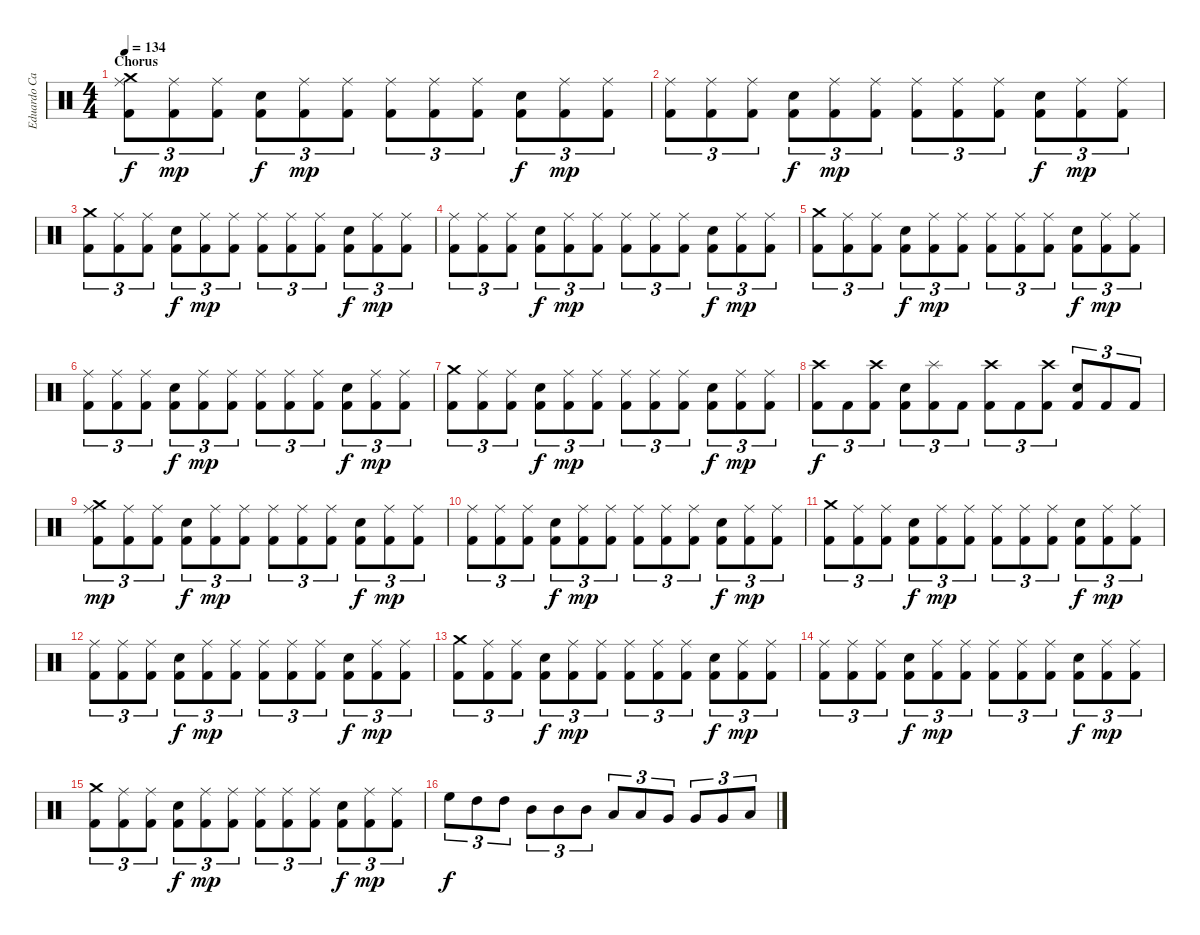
\track ("Eduardo Carrillo" "Eduardo Ca") {instrument percussion}
\staff {score}
\articulation defaults
\ts (4 4)
\section ("" "Chorus")
\tempo 134
\clef neutral
\ks c
("Kick (hit) 2" "Ride (middle)" "Crash medium (hit)").8{tu (3 2) dy f} ("Kick (hit) 2" "Ride (middle)").8{tu (3 2) dy mp} ("Kick (hit) 2" "Ride (middle)").8{tu (3 2)} ("Kick (hit) 2" "Snare (hit) 2").8{tu (3 2) dy f} ("Kick (hit) 2" "Ride (middle)").8{tu (3 2) dy mp} ("Kick (hit) 2" "Ride (middle)").8{tu (3 2)} ("Kick (hit) 2" "Ride (middle)").8{tu (3 2)} ("Kick (hit) 2" "Ride (middle)").8{tu (3 2)} ("Kick (hit) 2" "Ride (middle)").8{tu (3 2)} ("Kick (hit) 2" "Snare (hit) 2").8{tu (3 2) dy f} ("Kick (hit) 2" "Ride (middle)").8{tu (3 2) dy mp} ("Kick (hit) 2" "Ride (middle)").8{tu (3 2)} |
("Kick (hit) 2" "Ride (middle)").8{tu (3 2)} ("Kick (hit) 2" "Ride (middle)").8{tu (3 2)} ("Kick (hit) 2" "Ride (middle)").8{tu (3 2)} ("Kick (hit) 2" "Snare (hit) 2").8{tu (3 2) dy f} ("Kick (hit) 2" "Ride (middle)").8{tu (3 2) dy mp} ("Kick (hit) 2" "Ride (middle)").8{tu (3 2)} ("Kick (hit) 2" "Ride (middle)").8{tu (3 2)} ("Kick (hit) 2" "Ride (middle)").8{tu (3 2)} ("Kick (hit) 2" "Ride (middle)").8{tu (3 2)} ("Kick (hit) 2" "Snare (hit) 2").8{tu (3 2) dy f} ("Kick (hit) 2" "Ride (middle)").8{tu (3 2) dy mp} ("Kick (hit) 2" "Ride (middle)").8{tu (3 2)} |
("Kick (hit) 2" "Crash medium (hit)").8{tu (3 2)} ("Kick (hit) 2" "Ride (middle)").8{tu (3 2)} ("Kick (hit) 2" "Ride (middle)").8{tu (3 2)} ("Kick (hit) 2" "Snare (hit) 2").8{tu (3 2) dy f} ("Kick (hit) 2" "Ride (middle)").8{tu (3 2) dy mp} ("Kick (hit) 2" "Ride (middle)").8{tu (3 2)} ("Kick (hit) 2" "Ride (middle)").8{tu (3 2)} ("Kick (hit) 2" "Ride (middle)").8{tu (3 2)} ("Kick (hit) 2" "Ride (middle)").8{tu (3 2)} ("Kick (hit) 2" "Snare (hit) 2").8{tu (3 2) dy f} ("Kick (hit) 2" "Ride (middle)").8{tu (3 2) dy mp} ("Kick (hit) 2" "Ride (middle)").8{tu (3 2)} |
("Kick (hit) 2" "Ride (middle)").8{tu (3 2)} ("Kick (hit) 2" "Ride (middle)").8{tu (3 2)} ("Kick (hit) 2" "Ride (middle)").8{tu (3 2)} ("Kick (hit) 2" "Snare (hit) 2").8{tu (3 2) dy f} ("Kick (hit) 2" "Ride (middle)").8{tu (3 2) dy mp} ("Kick (hit) 2" "Ride (middle)").8{tu (3 2)} ("Kick (hit) 2" "Ride (middle)").8{tu (3 2)} ("Kick (hit) 2" "Ride (middle)").8{tu (3 2)} ("Kick (hit) 2" "Ride (middle)").8{tu (3 2)} ("Kick (hit) 2" "Snare (hit) 2").8{tu (3 2) dy f} ("Kick (hit) 2" "Ride (middle)").8{tu (3 2) dy mp} ("Kick (hit) 2" "Ride (middle)").8{tu (3 2)} |
("Kick (hit) 2" "Crash medium (hit)").8{tu (3 2)} ("Kick (hit) 2" "Ride (middle)").8{tu (3 2)} ("Kick (hit) 2" "Ride (middle)").8{tu (3 2)} ("Kick (hit) 2" "Snare (hit) 2").8{tu (3 2) dy f} ("Kick (hit) 2" "Ride (middle)").8{tu (3 2) dy mp} ("Kick (hit) 2" "Ride (middle)").8{tu (3 2)} ("Kick (hit) 2" "Ride (middle)").8{tu (3 2)} ("Kick (hit) 2" "Ride (middle)").8{tu (3 2)} ("Kick (hit) 2" "Ride (middle)").8{tu (3 2)} ("Kick (hit) 2" "Snare (hit) 2").8{tu (3 2) dy f} ("Kick (hit) 2" "Ride (middle)").8{tu (3 2) dy mp} ("Kick (hit) 2" "Ride (middle)").8{tu (3 2)} |
("Kick (hit) 2" "Ride (middle)").8{tu (3 2)} ("Kick (hit) 2" "Ride (middle)").8{tu (3 2)} ("Kick (hit) 2" "Ride (middle)").8{tu (3 2)} ("Kick (hit) 2" "Snare (hit) 2").8{tu (3 2) dy f} ("Kick (hit) 2" "Ride (middle)").8{tu (3 2) dy mp} ("Kick (hit) 2" "Ride (middle)").8{tu (3 2)} ("Kick (hit) 2" "Ride (middle)").8{tu (3 2)} ("Kick (hit) 2" "Ride (middle)").8{tu (3 2)} ("Kick (hit) 2" "Ride (middle)").8{tu (3 2)} ("Kick (hit) 2" "Snare (hit) 2").8{tu (3 2) dy f} ("Kick (hit) 2" "Ride (middle)").8{tu (3 2) dy mp} ("Kick (hit) 2" "Ride (middle)").8{tu (3 2)} |
("Kick (hit) 2" "Crash medium (hit)").8{tu (3 2)} ("Kick (hit) 2" "Ride (middle)").8{tu (3 2)} ("Kick (hit) 2" "Ride (middle)").8{tu (3 2)} ("Kick (hit) 2" "Snare (hit) 2").8{tu (3 2) dy f} ("Kick (hit) 2" "Ride (middle)").8{tu (3 2) dy mp} ("Kick (hit) 2" "Ride (middle)").8{tu (3 2)} ("Kick (hit) 2" "Ride (middle)").8{tu (3 2)} ("Kick (hit) 2" "Ride (middle)").8{tu (3 2)} ("Kick (hit) 2" "Ride (middle)").8{tu (3 2)} ("Kick (hit) 2" "Snare (hit) 2").8{tu (3 2) dy f} ("Kick (hit) 2" "Ride (middle)").8{tu (3 2) dy mp} ("Kick (hit) 2" "Ride (middle)").8{tu (3 2)} |
("Kick (hit) 2" "Crash high (hit)").8{tu (3 2) dy f} "Kick (hit) 2".8{tu (3 2)} ("Kick (hit) 2" "Crash high (hit)").8{tu (3 2)} ("Kick (hit) 2" "Snare (hit) 2").8{tu (3 2)} ("Kick (hit) 2" "Splash (hit)").8{tu (3 2)} "Kick (hit) 2".8{tu (3 2)} ("Kick (hit) 2" "Crash high (hit)").8{tu (3 2)} "Kick (hit) 2".8{tu (3 2)} ("Kick (hit) 2" "Crash high (hit)").8{tu (3 2)} ("Kick (hit) 2" "Snare (hit) 2").8{tu (3 2)} "Kick (hit) 2".8{tu (3 2)} "Kick (hit) 2".8{tu (3 2)} |
("Kick (hit) 2" "Ride (middle)" "Crash medium (hit)").8{tu (3 2) dy mp} ("Kick (hit) 2" "Ride (middle)").8{tu (3 2)} ("Kick (hit) 2" "Ride (middle)").8{tu (3 2)} ("Kick (hit) 2" "Snare (hit) 2").8{tu (3 2) dy f} ("Kick (hit) 2" "Ride (middle)").8{tu (3 2) dy mp} ("Kick (hit) 2" "Ride (middle)").8{tu (3 2)} ("Kick (hit) 2" "Ride (middle)").8{tu (3 2)} ("Kick (hit) 2" "Ride (middle)").8{tu (3 2)} ("Kick (hit) 2" "Ride (middle)").8{tu (3 2)} ("Kick (hit) 2" "Snare (hit) 2").8{tu (3 2) dy f} ("Kick (hit) 2" "Ride (middle)").8{tu (3 2) dy mp} ("Kick (hit) 2" "Ride (middle)").8{tu (3 2)} |
("Kick (hit) 2" "Ride (middle)").8{tu (3 2)} ("Kick (hit) 2" "Ride (middle)").8{tu (3 2)} ("Kick (hit) 2" "Ride (middle)").8{tu (3 2)} ("Kick (hit) 2" "Snare (hit) 2").8{tu (3 2) dy f} ("Kick (hit) 2" "Ride (middle)").8{tu (3 2) dy mp} ("Kick (hit) 2" "Ride (middle)").8{tu (3 2)} ("Kick (hit) 2" "Ride (middle)").8{tu (3 2)} ("Kick (hit) 2" "Ride (middle)").8{tu (3 2)} ("Kick (hit) 2" "Ride (middle)").8{tu (3 2)} ("Kick (hit) 2" "Snare (hit) 2").8{tu (3 2) dy f} ("Kick (hit) 2" "Ride (middle)").8{tu (3 2) dy mp} ("Kick (hit) 2" "Ride (middle)").8{tu (3 2)} |
("Kick (hit) 2" "Crash medium (hit)").8{tu (3 2)} ("Kick (hit) 2" "Ride (middle)").8{tu (3 2)} ("Kick (hit) 2" "Ride (middle)").8{tu (3 2)} ("Kick (hit) 2" "Snare (hit) 2").8{tu (3 2) dy f} ("Kick (hit) 2" "Ride (middle)").8{tu (3 2) dy mp} ("Kick (hit) 2" "Ride (middle)").8{tu (3 2)} ("Kick (hit) 2" "Ride (middle)").8{tu (3 2)} ("Kick (hit) 2" "Ride (middle)").8{tu (3 2)} ("Kick (hit) 2" "Ride (middle)").8{tu (3 2)} ("Kick (hit) 2" "Snare (hit) 2").8{tu (3 2) dy f} ("Kick (hit) 2" "Ride (middle)").8{tu (3 2) dy mp} ("Kick (hit) 2" "Ride (middle)").8{tu (3 2)} |
("Kick (hit) 2" "Ride (middle)").8{tu (3 2)} ("Kick (hit) 2" "Ride (middle)").8{tu (3 2)} ("Kick (hit) 2" "Ride (middle)").8{tu (3 2)} ("Kick (hit) 2" "Snare (hit) 2").8{tu (3 2) dy f} ("Kick (hit) 2" "Ride (middle)").8{tu (3 2) dy mp} ("Kick (hit) 2" "Ride (middle)").8{tu (3 2)} ("Kick (hit) 2" "Ride (middle)").8{tu (3 2)} ("Kick (hit) 2" "Ride (middle)").8{tu (3 2)} ("Kick (hit) 2" "Ride (middle)").8{tu (3 2)} ("Kick (hit) 2" "Snare (hit) 2").8{tu (3 2) dy f} ("Kick (hit) 2" "Ride (middle)").8{tu (3 2) dy mp} ("Kick (hit) 2" "Ride (middle)").8{tu (3 2)} |
("Kick (hit) 2" "Crash medium (hit)").8{tu (3 2)} ("Kick (hit) 2" "Ride (middle)").8{tu (3 2)} ("Kick (hit) 2" "Ride (middle)").8{tu (3 2)} ("Kick (hit) 2" "Snare (hit) 2").8{tu (3 2) dy f} ("Kick (hit) 2" "Ride (middle)").8{tu (3 2) dy mp} ("Kick (hit) 2" "Ride (middle)").8{tu (3 2)} ("Kick (hit) 2" "Ride (middle)").8{tu (3 2)} ("Kick (hit) 2" "Ride (middle)").8{tu (3 2)} ("Kick (hit) 2" "Ride (middle)").8{tu (3 2)} ("Kick (hit) 2" "Snare (hit) 2").8{tu (3 2) dy f} ("Kick (hit) 2" "Ride (middle)").8{tu (3 2) dy mp} ("Kick (hit) 2" "Ride (middle)").8{tu (3 2)} |
("Kick (hit) 2" "Ride (middle)").8{tu (3 2)} ("Kick (hit) 2" "Ride (middle)").8{tu (3 2)} ("Kick (hit) 2" "Ride (middle)").8{tu (3 2)} ("Kick (hit) 2" "Snare (hit) 2").8{tu (3 2) dy f} ("Kick (hit) 2" "Ride (middle)").8{tu (3 2) dy mp} ("Kick (hit) 2" "Ride (middle)").8{tu (3 2)} ("Kick (hit) 2" "Ride (middle)").8{tu (3 2)} ("Kick (hit) 2" "Ride (middle)").8{tu (3 2)} ("Kick (hit) 2" "Ride (middle)").8{tu (3 2)} ("Kick (hit) 2" "Snare (hit) 2").8{tu (3 2) dy f} ("Kick (hit) 2" "Ride (middle)").8{tu (3 2) dy mp} ("Kick (hit) 2" "Ride (middle)").8{tu (3 2)} |
("Kick (hit) 2" "Crash medium (hit)").8{tu (3 2)} ("Kick (hit) 2" "Ride (middle)").8{tu (3 2)} ("Kick (hit) 2" "Ride (middle)").8{tu (3 2)} ("Kick (hit) 2" "Snare (hit) 2").8{tu (3 2) dy f} ("Kick (hit) 2" "Ride (middle)").8{tu (3 2) dy mp} ("Kick (hit) 2" "Ride (middle)").8{tu (3 2)} ("Kick (hit) 2" "Ride (middle)").8{tu (3 2)} ("Kick (hit) 2" "Ride (middle)").8{tu (3 2)} ("Kick (hit) 2" "Ride (middle)").8{tu (3 2)} ("Kick (hit) 2" "Snare (hit) 2").8{tu (3 2) dy f} ("Kick (hit) 2" "Ride (middle)").8{tu (3 2) dy mp} ("Kick (hit) 2" "Ride (middle)").8{tu (3 2)} |
"High Floor Tom (hit)".8{tu (3 2) dy f} "High Tom (hit)".8{tu (3 2)} "High Tom (hit)".8{tu (3 2)} "Mid Tom (hit)".8{tu (3 2)} "Mid Tom (hit)".8{tu (3 2)} "Mid Tom (hit)".8{tu (3 2)} "Low Tom (hit)".8{tu (3 2)} "Low Tom (hit)".8{tu (3 2)} "Very Low Tom (hit)".8{tu (3 2)} "Very Low Tom (hit)".8{tu (3 2)} "Very Low Tom (hit)".8{tu (3 2)} "Low Floor Tom (hit)".8{tu (3 2)}
